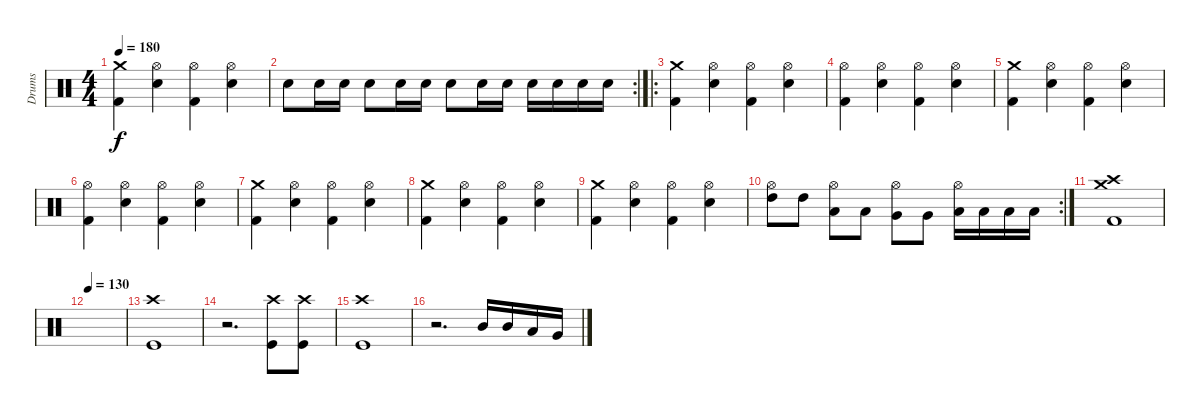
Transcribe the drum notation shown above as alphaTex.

\track ("Drums" "Drums") {instrument percussion}
\staff {score}
\articulation defaults
\ts (4 4)
\tempo 180
\clef neutral
\ks c
("Crash medium (hit)" "Kick (hit) 2").4{dy f} ("Hi-Hat (open)" "Snare (hit) 2").4 ("Hi-Hat (open)" "Kick (hit) 2").4 ("Hi-Hat (open)" "Snare (hit) 2").4 |
\rc 2 "Snare (hit) 2".8 "Snare (hit) 2".16 "Snare (hit) 2".16 "Snare (hit) 2".8 "Snare (hit) 2".16 "Snare (hit) 2".16 "Snare (hit) 2".8 "Snare (hit) 2".16 "Snare (hit) 2".16 "Snare (hit) 2".16 "Snare (hit) 2".16 "Snare (hit) 2".16 "Snare (hit) 2".16
|
\ro
("Crash medium (hit)" "Kick (hit) 2").4 ("Hi-Hat (open)" "Snare (hit) 2").4 ("Hi-Hat (open)" "Kick (hit) 2").4 ("Hi-Hat (open)" "Snare (hit) 2").4 |
("Hi-Hat (open)" "Kick (hit) 2").4 ("Hi-Hat (open)" "Snare (hit) 2").4 ("Hi-Hat (open)" "Kick (hit) 2").4 ("Hi-Hat (open)" "Snare (hit) 2").4 |
("Crash medium (hit)" "Kick (hit) 2").4 ("Hi-Hat (open)" "Snare (hit) 2").4 ("Hi-Hat (open)" "Kick (hit) 2").4 ("Hi-Hat (open)" "Snare (hit) 2").4 |
("Hi-Hat (open)" "Kick (hit) 2").4 ("Hi-Hat (open)" "Snare (hit) 2").4 ("Hi-Hat (open)" "Kick (hit) 2").4 ("Hi-Hat (open)" "Snare (hit) 2").4 |
("Crash medium (hit)" "Kick (hit) 2").4 ("Hi-Hat (open)" "Snare (hit) 2").4 ("Hi-Hat (open)" "Kick (hit) 2").4 ("Hi-Hat (open)" "Snare (hit) 2").4 |
("Crash medium (hit)" "Kick (hit) 2").4 ("Hi-Hat (open)" "Snare (hit) 2").4 ("Hi-Hat (open)" "Kick (hit) 2").4 ("Hi-Hat (open)" "Snare (hit) 2").4 |
("Crash medium (hit)" "Kick (hit) 2").4 ("Hi-Hat (open)" "Snare (hit) 2").4 ("Hi-Hat (open)" "Kick (hit) 2").4 ("Hi-Hat (open)" "Snare (hit) 2").4 |
\rc 2
("Hi-Hat (open)" "High Tom (hit)").8 "High Tom (hit)".8 ("Hi-Hat (open)" "Low Tom (hit)").8 "Low Tom (hit)".8 ("Hi-Hat (open)" "Very Low Tom (hit)").8 "Very Low Tom (hit)".8 ("Hi-Hat (open)" "Low Floor Tom (hit)").16 "Low Floor Tom (hit)".16 "Low Floor Tom (hit)".16 "Low Floor Tom (hit)".16 |
("Crash medium (hit)" "Crash high (hit)" "Kick (hit) 2").1 |
\tempo 130
|
("Crash high (hit)" "Kick (hit)").1 |
r.2{d} ("Crash high (hit)" "Kick (hit)").8 ("Crash high (hit)" "Kick (hit)").8 |
("Crash high (hit)" "Kick (hit)").1 |
r.2{d} "Mid Tom (hit)".16 "Mid Tom (hit)".16 "Low Tom (hit)".16 "Very Low Tom (hit)".16
